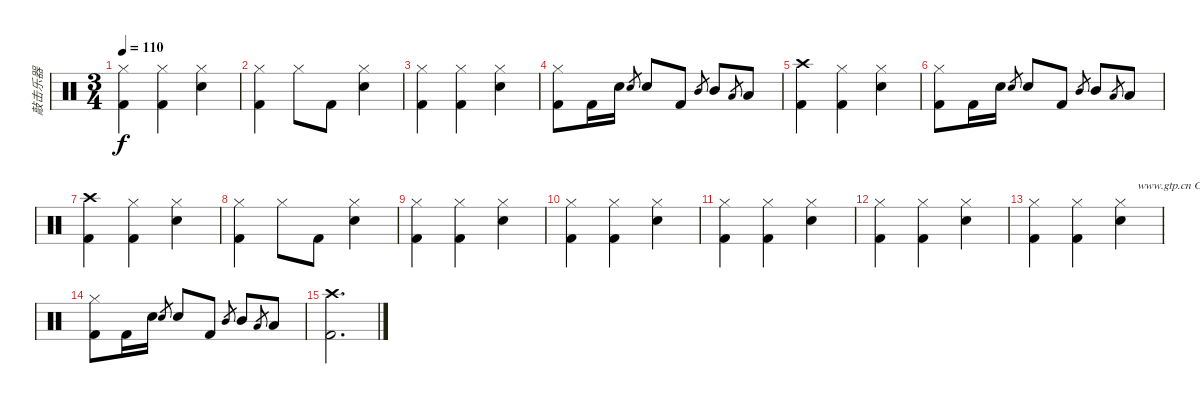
\track ("敲击乐器" "敲击乐器") {instrument percussion}
\staff {score}
\articulation defaults
\ts (3 4)
\tempo 110
\clef neutral
\ks c
("Hi-Hat (closed)" "Kick (hit) 2").4{dy f} ("Hi-Hat (closed)" "Kick (hit) 2").4 ("Hi-Hat (closed)" "Electric Snare (hit)").4 |
("Hi-Hat (closed)" "Kick (hit) 2").4 "Hi-Hat (closed)".8 "Kick (hit) 2".8 ("Hi-Hat (closed)" "Electric Snare (hit)").4 |
("Hi-Hat (closed)" "Kick (hit) 2").4 ("Hi-Hat (closed)" "Kick (hit) 2").4 ("Hi-Hat (closed)" "Electric Snare (hit)").4 |
("Hi-Hat (closed)" "Kick (hit) 2").8 "Kick (hit) 2".16 "Electric Snare (hit)".16 "Electric Snare (hit)".8{gr} "Electric Snare (hit)".8 "Kick (hit) 2".8 "Mid Tom (hit)".8{gr} "Mid Tom (hit)".8 "Low Tom (hit)".8{gr} "Low Tom (hit)".8 |
("Crash high (hit)" "Kick (hit) 2").4 ("Hi-Hat (closed)" "Kick (hit) 2").4 ("Hi-Hat (closed)" "Electric Snare (hit)").4 |
("Hi-Hat (closed)" "Kick (hit) 2").8 "Kick (hit) 2".16 "Electric Snare (hit)".16 "Electric Snare (hit)".8{gr} "Electric Snare (hit)".8 "Kick (hit) 2".8 "Mid Tom (hit)".8{gr} "Mid Tom (hit)".8 "Low Tom (hit)".8{gr} "Low Tom (hit)".8 |
("Crash high (hit)" "Kick (hit) 2").4 ("Hi-Hat (closed)" "Kick (hit) 2").4 ("Hi-Hat (closed)" "Electric Snare (hit)").4 |
("Hi-Hat (closed)" "Kick (hit) 2").4 "Hi-Hat (closed)".8 "Kick (hit) 2".8 ("Hi-Hat (closed)" "Electric Snare (hit)").4 |
("Hi-Hat (closed)" "Kick (hit) 2").4 ("Hi-Hat (closed)" "Kick (hit) 2").4 ("Hi-Hat (closed)" "Electric Snare (hit)").4 |
("Hi-Hat (closed)" "Kick (hit) 2").4 ("Hi-Hat (closed)" "Kick (hit) 2").4 ("Hi-Hat (closed)" "Electric Snare (hit)").4 |
("Hi-Hat (closed)" "Kick (hit) 2").4 ("Hi-Hat (closed)" "Kick (hit) 2").4 ("Hi-Hat (closed)" "Electric Snare (hit)").4 |
("Hi-Hat (closed)" "Kick (hit) 2").4 ("Hi-Hat (closed)" "Kick (hit) 2").4 ("Hi-Hat (closed)" "Electric Snare (hit)").4 |
("Hi-Hat (closed)" "Kick (hit) 2").4 ("Hi-Hat (closed)" "Kick (hit) 2").4{txt "                    www.gtp.cn GTP中文网为您提供"} ("Hi-Hat (closed)" "Electric Snare (hit)").4 |
("Hi-Hat (closed)" "Kick (hit) 2").8 "Kick (hit) 2".16 "Electric Snare (hit)".16 "Electric Snare (hit)".8{gr} "Electric Snare (hit)".8 "Kick (hit) 2".8 "Mid Tom (hit)".8{gr} "Mid Tom (hit)".8 "Low Tom (hit)".8{gr} "Low Tom (hit)".8 |
("Crash high (hit)" "Kick (hit) 2").2{d}
